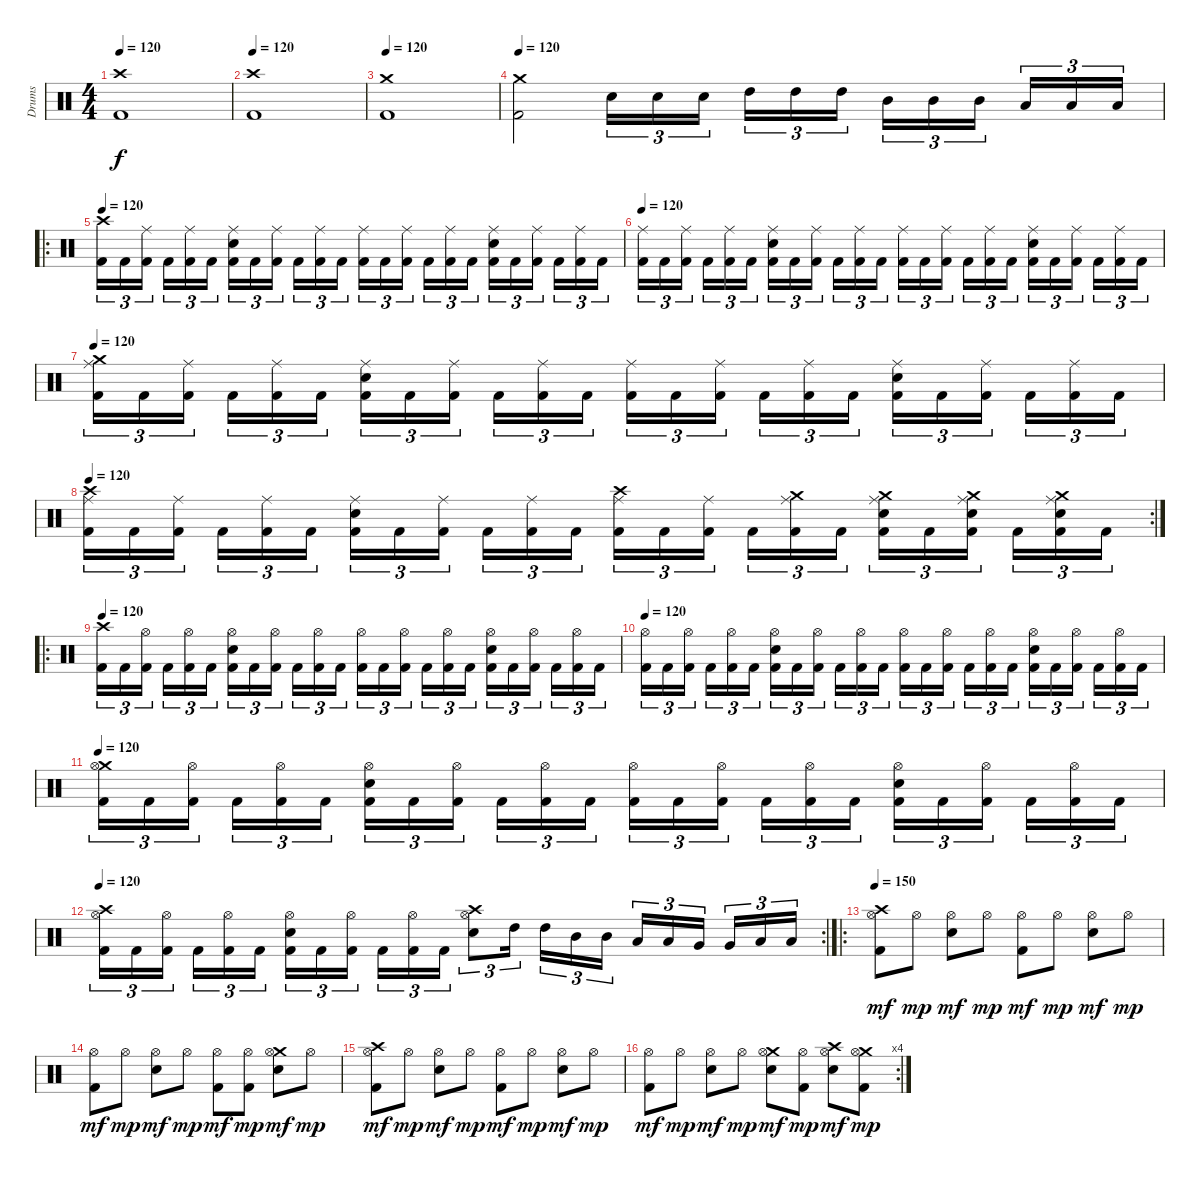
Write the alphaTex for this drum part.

\track ("Drums" "Drums") {instrument percussion}
\staff {score}
\articulation defaults
\ts (4 4)
\tempo 120
\clef neutral
\ks c
("Crash high (hit)" "Kick (hit) 2").1{dy f} |
\tempo 120
("Crash high (hit)" "Kick (hit) 2").1 |
\tempo 120
("Crash medium (hit)" "Kick (hit) 2").1 |
\tempo 120
("Crash medium (hit)" "Kick (hit) 2").2 "Electric Snare (hit)".16{tu (3 2)} "Electric Snare (hit)".16{tu (3 2)} "Electric Snare (hit)".16{tu (3 2)} "High Tom (hit)".16{tu (3 2)} "High Tom (hit)".16{tu (3 2)} "High Tom (hit)".16{tu (3 2)} "Mid Tom (hit)".16{tu (3 2)} "Mid Tom (hit)".16{tu (3 2)} "Mid Tom (hit)".16{tu (3 2)} "Low Tom (hit)".16{tu (3 2)} "Low Tom (hit)".16{tu (3 2)} "Low Tom (hit)".16{tu (3 2)} |
\ro
\tempo 120
("Crash high (hit)" "Kick (hit) 2").16{tu (3 2)} "Kick (hit) 2".16{tu (3 2)} ("Ride (middle)" "Kick (hit) 2").16{tu (3 2)} "Kick (hit) 2".16{tu (3 2)} ("Ride (middle)" "Kick (hit) 2").16{tu (3 2)} "Kick (hit) 2".16{tu (3 2)} ("Ride (middle)" "Electric Snare (hit)" "Kick (hit) 2").16{tu (3 2)} "Kick (hit) 2".16{tu (3 2)} ("Ride (middle)" "Kick (hit) 2").16{tu (3 2)} "Kick (hit) 2".16{tu (3 2)} ("Ride (middle)" "Kick (hit) 2").16{tu (3 2)} "Kick (hit) 2".16{tu (3 2)} ("Ride (middle)" "Kick (hit) 2").16{tu (3 2)} "Kick (hit) 2".16{tu (3 2)} ("Ride (middle)" "Kick (hit) 2").16{tu (3 2)} "Kick (hit) 2".16{tu (3 2)} ("Ride (middle)" "Kick (hit) 2").16{tu (3 2)} "Kick (hit) 2".16{tu (3 2)} ("Ride (middle)" "Electric Snare (hit)" "Kick (hit) 2").16{tu (3 2)} "Kick (hit) 2".16{tu (3 2)} ("Ride (middle)" "Kick (hit) 2").16{tu (3 2)} "Kick (hit) 2".16{tu (3 2)} ("Ride (middle)" "Kick (hit) 2").16{tu (3 2)} "Kick (hit) 2".16{tu (3 2)} |
\tempo 120
("Ride (middle)" "Kick (hit) 2").16{tu (3 2)} "Kick (hit) 2".16{tu (3 2)} ("Ride (middle)" "Kick (hit) 2").16{tu (3 2)} "Kick (hit) 2".16{tu (3 2)} ("Ride (middle)" "Kick (hit) 2").16{tu (3 2)} "Kick (hit) 2".16{tu (3 2)} ("Ride (middle)" "Electric Snare (hit)" "Kick (hit) 2").16{tu (3 2)} "Kick (hit) 2".16{tu (3 2)} ("Ride (middle)" "Kick (hit) 2").16{tu (3 2)} "Kick (hit) 2".16{tu (3 2)} ("Ride (middle)" "Kick (hit) 2").16{tu (3 2)} "Kick (hit) 2".16{tu (3 2)} ("Ride (middle)" "Kick (hit) 2").16{tu (3 2)} "Kick (hit) 2".16{tu (3 2)} ("Ride (middle)" "Kick (hit) 2").16{tu (3 2)} "Kick (hit) 2".16{tu (3 2)} ("Ride (middle)" "Kick (hit) 2").16{tu (3 2)} "Kick (hit) 2".16{tu (3 2)} ("Ride (middle)" "Electric Snare (hit)" "Kick (hit) 2").16{tu (3 2)} "Kick (hit) 2".16{tu (3 2)} ("Ride (middle)" "Kick (hit) 2").16{tu (3 2)} "Kick (hit) 2".16{tu (3 2)} ("Ride (middle)" "Kick (hit) 2").16{tu (3 2)} "Kick (hit) 2".16{tu (3 2)} |
\tempo 120
("Crash medium (hit)" "Ride (middle)" "Kick (hit) 2").16{tu (3 2)} "Kick (hit) 2".16{tu (3 2)} ("Ride (middle)" "Kick (hit) 2").16{tu (3 2)} "Kick (hit) 2".16{tu (3 2)} ("Ride (middle)" "Kick (hit) 2").16{tu (3 2)} "Kick (hit) 2".16{tu (3 2)} ("Ride (middle)" "Electric Snare (hit)" "Kick (hit) 2").16{tu (3 2)} "Kick (hit) 2".16{tu (3 2)} ("Ride (middle)" "Kick (hit) 2").16{tu (3 2)} "Kick (hit) 2".16{tu (3 2)} ("Ride (middle)" "Kick (hit) 2").16{tu (3 2)} "Kick (hit) 2".16{tu (3 2)} ("Ride (middle)" "Kick (hit) 2").16{tu (3 2)} "Kick (hit) 2".16{tu (3 2)} ("Ride (middle)" "Kick (hit) 2").16{tu (3 2)} "Kick (hit) 2".16{tu (3 2)} ("Ride (middle)" "Kick (hit) 2").16{tu (3 2)} "Kick (hit) 2".16{tu (3 2)} ("Ride (middle)" "Electric Snare (hit)" "Kick (hit) 2").16{tu (3 2)} "Kick (hit) 2".16{tu (3 2)} ("Ride (middle)" "Kick (hit) 2").16{tu (3 2)} "Kick (hit) 2".16{tu (3 2)} ("Ride (middle)" "Kick (hit) 2").16{tu (3 2)} "Kick (hit) 2".16{tu (3 2)} |
\rc 2
\tempo 120
("Crash high (hit)" "Ride (middle)" "Kick (hit) 2").16{tu (3 2)} "Kick (hit) 2".16{tu (3 2)} ("Ride (middle)" "Kick (hit) 2").16{tu (3 2)} "Kick (hit) 2".16{tu (3 2)} ("Ride (middle)" "Kick (hit) 2").16{tu (3 2)} "Kick (hit) 2".16{tu (3 2)} ("Ride (middle)" "Electric Snare (hit)" "Kick (hit) 2").16{tu (3 2)} "Kick (hit) 2".16{tu (3 2)} ("Ride (middle)" "Kick (hit) 2").16{tu (3 2)} "Kick (hit) 2".16{tu (3 2)} ("Ride (middle)" "Kick (hit) 2").16{tu (3 2)} "Kick (hit) 2".16{tu (3 2)} ("Crash high (hit)" "Ride (middle)" "Kick (hit) 2").16{tu (3 2)} "Kick (hit) 2".16{tu (3 2)} ("Ride (middle)" "Kick (hit) 2").16{tu (3 2)} "Kick (hit) 2".16{tu (3 2)} ("Crash medium (hit)" "Ride (middle)" "Kick (hit) 2").16{tu (3 2)} "Kick (hit) 2".16{tu (3 2)} ("Crash medium (hit)" "Ride (middle)" "Electric Snare (hit)" "Kick (hit) 2").16{tu (3 2)} "Kick (hit) 2".16{tu (3 2)} ("Crash medium (hit)" "Ride (middle)" "Electric Snare (hit)" "Kick (hit) 2").16{tu (3 2)} "Kick (hit) 2".16{tu (3 2)} ("Crash medium (hit)" "Ride (middle)" "Electric Snare (hit)" "Kick (hit) 2").16{tu (3 2)} "Kick (hit) 2".16{tu (3 2)} |
\ro
\tempo 120
("Crash high (hit)" "Kick (hit) 2").16{tu (3 2)} "Kick (hit) 2".16{tu (3 2)} ("Hi-Hat (open)" "Kick (hit) 2").16{tu (3 2)} "Kick (hit) 2".16{tu (3 2)} ("Hi-Hat (open)" "Kick (hit) 2").16{tu (3 2)} "Kick (hit) 2".16{tu (3 2)} ("Hi-Hat (open)" "Electric Snare (hit)" "Kick (hit) 2").16{tu (3 2)} "Kick (hit) 2".16{tu (3 2)} ("Hi-Hat (open)" "Kick (hit) 2").16{tu (3 2)} "Kick (hit) 2".16{tu (3 2)} ("Hi-Hat (open)" "Kick (hit) 2").16{tu (3 2)} "Kick (hit) 2".16{tu (3 2)} ("Hi-Hat (open)" "Kick (hit) 2").16{tu (3 2)} "Kick (hit) 2".16{tu (3 2)} ("Hi-Hat (open)" "Kick (hit) 2").16{tu (3 2)} "Kick (hit) 2".16{tu (3 2)} ("Hi-Hat (open)" "Kick (hit) 2").16{tu (3 2)} "Kick (hit) 2".16{tu (3 2)} ("Hi-Hat (open)" "Electric Snare (hit)" "Kick (hit) 2").16{tu (3 2)} "Kick (hit) 2".16{tu (3 2)} ("Hi-Hat (open)" "Kick (hit) 2").16{tu (3 2)} "Kick (hit) 2".16{tu (3 2)} ("Hi-Hat (open)" "Kick (hit) 2").16{tu (3 2)} "Kick (hit) 2".16{tu (3 2)} |
\tempo 120
("Hi-Hat (open)" "Kick (hit) 2").16{tu (3 2)} "Kick (hit) 2".16{tu (3 2)} ("Hi-Hat (open)" "Kick (hit) 2").16{tu (3 2)} "Kick (hit) 2".16{tu (3 2)} ("Hi-Hat (open)" "Kick (hit) 2").16{tu (3 2)} "Kick (hit) 2".16{tu (3 2)} ("Hi-Hat (open)" "Electric Snare (hit)" "Kick (hit) 2").16{tu (3 2)} "Kick (hit) 2".16{tu (3 2)} ("Hi-Hat (open)" "Kick (hit) 2").16{tu (3 2)} "Kick (hit) 2".16{tu (3 2)} ("Hi-Hat (open)" "Kick (hit) 2").16{tu (3 2)} "Kick (hit) 2".16{tu (3 2)} ("Hi-Hat (open)" "Kick (hit) 2").16{tu (3 2)} "Kick (hit) 2".16{tu (3 2)} ("Hi-Hat (open)" "Kick (hit) 2").16{tu (3 2)} "Kick (hit) 2".16{tu (3 2)} ("Hi-Hat (open)" "Kick (hit) 2").16{tu (3 2)} "Kick (hit) 2".16{tu (3 2)} ("Hi-Hat (open)" "Electric Snare (hit)" "Kick (hit) 2").16{tu (3 2)} "Kick (hit) 2".16{tu (3 2)} ("Hi-Hat (open)" "Kick (hit) 2").16{tu (3 2)} "Kick (hit) 2".16{tu (3 2)} ("Hi-Hat (open)" "Kick (hit) 2").16{tu (3 2)} "Kick (hit) 2".16{tu (3 2)} |
\tempo 120
("Crash medium (hit)" "Hi-Hat (open)" "Kick (hit) 2").16{tu (3 2)} "Kick (hit) 2".16{tu (3 2)} ("Hi-Hat (open)" "Kick (hit) 2").16{tu (3 2)} "Kick (hit) 2".16{tu (3 2)} ("Hi-Hat (open)" "Kick (hit) 2").16{tu (3 2)} "Kick (hit) 2".16{tu (3 2)} ("Hi-Hat (open)" "Electric Snare (hit)" "Kick (hit) 2").16{tu (3 2)} "Kick (hit) 2".16{tu (3 2)} ("Hi-Hat (open)" "Kick (hit) 2").16{tu (3 2)} "Kick (hit) 2".16{tu (3 2)} ("Hi-Hat (open)" "Kick (hit) 2").16{tu (3 2)} "Kick (hit) 2".16{tu (3 2)} ("Hi-Hat (open)" "Kick (hit) 2").16{tu (3 2)} "Kick (hit) 2".16{tu (3 2)} ("Hi-Hat (open)" "Kick (hit) 2").16{tu (3 2)} "Kick (hit) 2".16{tu (3 2)} ("Hi-Hat (open)" "Kick (hit) 2").16{tu (3 2)} "Kick (hit) 2".16{tu (3 2)} ("Hi-Hat (open)" "Electric Snare (hit)" "Kick (hit) 2").16{tu (3 2)} "Kick (hit) 2".16{tu (3 2)} ("Hi-Hat (open)" "Kick (hit) 2").16{tu (3 2)} "Kick (hit) 2".16{tu (3 2)} ("Hi-Hat (open)" "Kick (hit) 2").16{tu (3 2)} "Kick (hit) 2".16{tu (3 2)} |
\rc 2
\tempo 120
("Crash high (hit)" "Hi-Hat (open)" "Kick (hit) 2").16{tu (3 2)} "Kick (hit) 2".16{tu (3 2)} ("Hi-Hat (open)" "Kick (hit) 2").16{tu (3 2)} "Kick (hit) 2".16{tu (3 2)} ("Hi-Hat (open)" "Kick (hit) 2").16{tu (3 2)} "Kick (hit) 2".16{tu (3 2)} ("Hi-Hat (open)" "Electric Snare (hit)" "Kick (hit) 2").16{tu (3 2)} "Kick (hit) 2".16{tu (3 2)} ("Hi-Hat (open)" "Kick (hit) 2").16{tu (3 2)} "Kick (hit) 2".16{tu (3 2)} ("Hi-Hat (open)" "Kick (hit) 2").16{tu (3 2)} "Kick (hit) 2".16{tu (3 2)} ("Crash high (hit)" "Hi-Hat (open)" "Electric Snare (hit)").8{tu (3 2)} "High Tom (hit)".16{tu (3 2)} "High Tom (hit)".16{tu (3 2)} "Mid Tom (hit)".16{tu (3 2)} "Mid Tom (hit)".16{tu (3 2)} "Low Tom (hit)".16{tu (3 2)} "Low Tom (hit)".16{tu (3 2)} "Very Low Tom (hit)".16{tu (3 2)} "Very Low Tom (hit)".16{tu (3 2)} "Low Floor Tom (hit)".16{tu (3 2)} "Low Floor Tom (hit)".16{tu (3 2)} |
\ro
\tempo 150
("Crash high (hit)" "Hi-Hat (open)" "Kick (hit) 2").8{dy mf} "Hi-Hat (open)".8{dy mp} ("Hi-Hat (open)" "Electric Snare (hit)").8{dy mf} "Hi-Hat (open)".8{dy mp} ("Hi-Hat (open)" "Kick (hit) 2").8{dy mf} "Hi-Hat (open)".8{dy mp} ("Hi-Hat (open)" "Electric Snare (hit)").8{dy mf} "Hi-Hat (open)".8{dy mp} |
("Hi-Hat (open)" "Kick (hit) 2").8{dy mf} "Hi-Hat (open)".8{dy mp} ("Hi-Hat (open)" "Electric Snare (hit)").8{dy mf} "Hi-Hat (open)".8{dy mp} ("Hi-Hat (open)" "Kick (hit) 2").8{dy mf} ("Hi-Hat (open)" "Kick (hit) 2").8{dy mp} ("Crash medium (hit)" "Hi-Hat (open)" "Electric Snare (hit)").8{dy mf} "Hi-Hat (open)".8{dy mp} |
("Crash high (hit)" "Hi-Hat (open)" "Kick (hit) 2").8{dy mf} "Hi-Hat (open)".8{dy mp} ("Hi-Hat (open)" "Electric Snare (hit)").8{dy mf} "Hi-Hat (open)".8{dy mp} ("Hi-Hat (open)" "Kick (hit) 2").8{dy mf} "Hi-Hat (open)".8{dy mp} ("Hi-Hat (open)" "Electric Snare (hit)").8{dy mf} "Hi-Hat (open)".8{dy mp} |
\rc 4
("Hi-Hat (open)" "Kick (hit) 2").8{dy mf} "Hi-Hat (open)".8{dy mp} ("Hi-Hat (open)" "Electric Snare (hit)").8{dy mf} "Hi-Hat (open)".8{dy mp} ("Crash medium (hit)" "Hi-Hat (open)" "Electric Snare (hit)").8{dy mf} ("Hi-Hat (open)" "Kick (hit) 2").8{dy mp} ("Crash high (hit)" "Hi-Hat (open)" "Electric Snare (hit)").8{dy mf} ("Crash medium (hit)" "Hi-Hat (open)" "Kick (hit) 2").8{dy mp}
